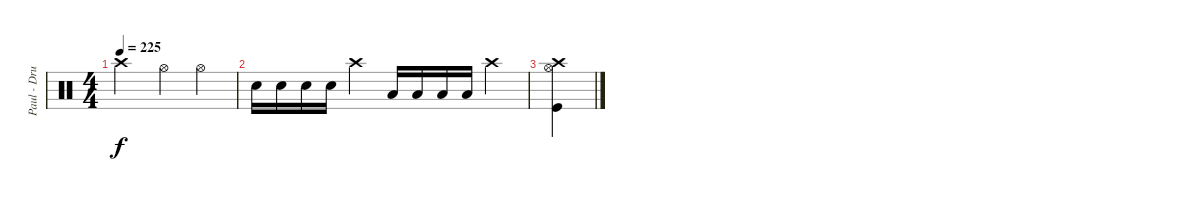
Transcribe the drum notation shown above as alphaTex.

\track ("Paul - Drums" "Paul - Dru") {instrument percussion}
\staff {score}
\articulation defaults
\ts (4 4)
\tempo 225
\clef neutral
\ks c "Crash high (hit)".2{dy f} "Hi-Hat (open)".4 "Hi-Hat (open)".4
|
"Snare (hit) 2".16 "Snare (hit) 2".16 "Snare (hit) 2".16 "Snare (hit) 2".16 "Crash high (hit)".4 "Low Tom (hit)".16 "Low Tom (hit)".16 "Low Tom (hit)".16 "Low Tom (hit)".16 "Crash high (hit)".4 |
("Crash high (hit)" "Hi-Hat (open)" "Kick (hit)").4
